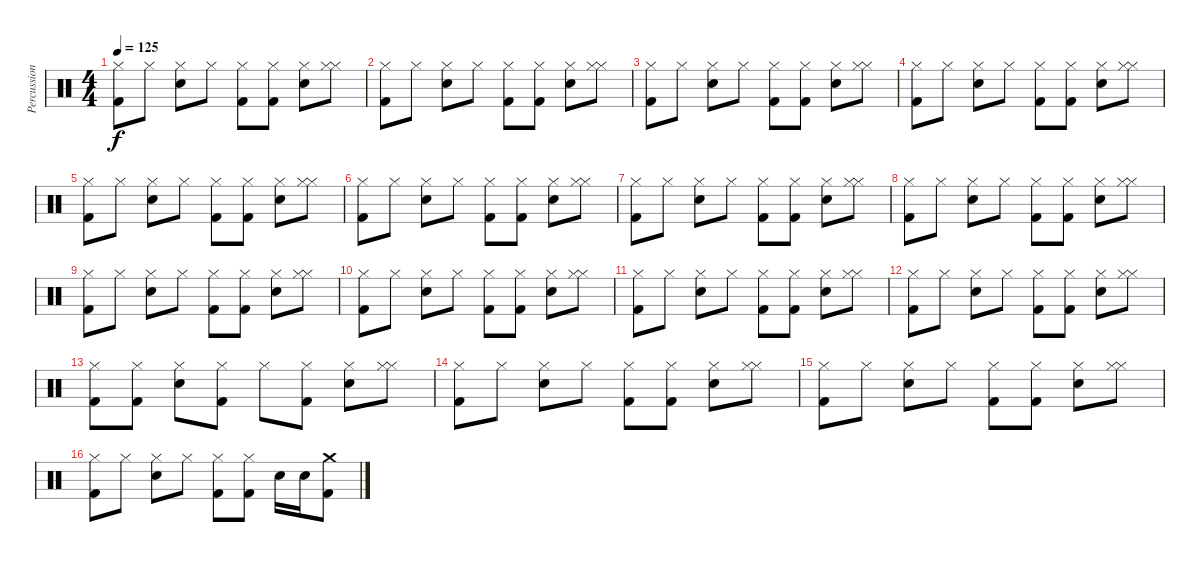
\track ("Percussion" "Percussion") {instrument percussion}
\staff {score}
\articulation defaults
\ts (4 4)
\tempo 125
\clef neutral
\ks c
("Hi-Hat (closed)" "Kick (hit) 2").8{dy f} "Hi-Hat (closed)".8 ("Hi-Hat (closed)" "Electric Snare (hit)").8 "Hi-Hat (closed)".8 ("Hi-Hat (closed)" "Kick (hit) 2").8 ("Hi-Hat (closed)" "Kick (hit) 2").8 ("Hi-Hat (closed)" "Electric Snare (hit)").8 ("Hi-Hat (closed)" "Hi-Hat (closed)").8 |
("Hi-Hat (closed)" "Kick (hit) 2").8 "Hi-Hat (closed)".8 ("Hi-Hat (closed)" "Electric Snare (hit)").8 "Hi-Hat (closed)".8 ("Hi-Hat (closed)" "Kick (hit) 2").8 ("Hi-Hat (closed)" "Kick (hit) 2").8 ("Hi-Hat (closed)" "Electric Snare (hit)").8 ("Hi-Hat (closed)" "Hi-Hat (closed)").8 |
("Hi-Hat (closed)" "Kick (hit) 2").8 "Hi-Hat (closed)".8 ("Hi-Hat (closed)" "Electric Snare (hit)").8 "Hi-Hat (closed)".8 ("Hi-Hat (closed)" "Kick (hit) 2").8 ("Hi-Hat (closed)" "Kick (hit) 2").8 ("Hi-Hat (closed)" "Electric Snare (hit)").8 ("Hi-Hat (closed)" "Hi-Hat (closed)").8 |
("Hi-Hat (closed)" "Kick (hit) 2").8 "Hi-Hat (closed)".8 ("Hi-Hat (closed)" "Electric Snare (hit)").8 "Hi-Hat (closed)".8 ("Hi-Hat (closed)" "Kick (hit) 2").8 ("Hi-Hat (closed)" "Kick (hit) 2").8 ("Hi-Hat (closed)" "Electric Snare (hit)").8 ("Hi-Hat (closed)" "Hi-Hat (closed)").8 |
("Hi-Hat (closed)" "Kick (hit) 2").8 "Hi-Hat (closed)".8 ("Hi-Hat (closed)" "Electric Snare (hit)").8 "Hi-Hat (closed)".8 ("Hi-Hat (closed)" "Kick (hit) 2").8 ("Hi-Hat (closed)" "Kick (hit) 2").8 ("Hi-Hat (closed)" "Electric Snare (hit)").8 ("Hi-Hat (closed)" "Hi-Hat (closed)").8 |
("Hi-Hat (closed)" "Kick (hit) 2").8 "Hi-Hat (closed)".8 ("Hi-Hat (closed)" "Electric Snare (hit)").8 "Hi-Hat (closed)".8 ("Hi-Hat (closed)" "Kick (hit) 2").8 ("Hi-Hat (closed)" "Kick (hit) 2").8 ("Hi-Hat (closed)" "Electric Snare (hit)").8 ("Hi-Hat (closed)" "Hi-Hat (closed)").8 |
("Hi-Hat (closed)" "Kick (hit) 2").8 "Hi-Hat (closed)".8 ("Hi-Hat (closed)" "Electric Snare (hit)").8 "Hi-Hat (closed)".8 ("Hi-Hat (closed)" "Kick (hit) 2").8 ("Hi-Hat (closed)" "Kick (hit) 2").8 ("Hi-Hat (closed)" "Electric Snare (hit)").8 ("Hi-Hat (closed)" "Hi-Hat (closed)").8 |
("Hi-Hat (closed)" "Kick (hit) 2").8 "Hi-Hat (closed)".8 ("Hi-Hat (closed)" "Electric Snare (hit)").8 "Hi-Hat (closed)".8 ("Hi-Hat (closed)" "Kick (hit) 2").8 ("Hi-Hat (closed)" "Kick (hit) 2").8 ("Hi-Hat (closed)" "Electric Snare (hit)").8 ("Hi-Hat (closed)" "Hi-Hat (closed)").8 |
("Hi-Hat (closed)" "Kick (hit) 2").8 "Hi-Hat (closed)".8 ("Hi-Hat (closed)" "Electric Snare (hit)").8 "Hi-Hat (closed)".8 ("Hi-Hat (closed)" "Kick (hit) 2").8 ("Hi-Hat (closed)" "Kick (hit) 2").8 ("Hi-Hat (closed)" "Electric Snare (hit)").8 ("Hi-Hat (closed)" "Hi-Hat (closed)").8 |
("Hi-Hat (closed)" "Kick (hit) 2").8 "Hi-Hat (closed)".8 ("Hi-Hat (closed)" "Electric Snare (hit)").8 "Hi-Hat (closed)".8 ("Hi-Hat (closed)" "Kick (hit) 2").8 ("Hi-Hat (closed)" "Kick (hit) 2").8 ("Hi-Hat (closed)" "Electric Snare (hit)").8 ("Hi-Hat (closed)" "Hi-Hat (closed)").8 |
("Hi-Hat (closed)" "Kick (hit) 2").8 "Hi-Hat (closed)".8 ("Hi-Hat (closed)" "Electric Snare (hit)").8 "Hi-Hat (closed)".8 ("Hi-Hat (closed)" "Kick (hit) 2").8 ("Hi-Hat (closed)" "Kick (hit) 2").8 ("Hi-Hat (closed)" "Electric Snare (hit)").8 ("Hi-Hat (closed)" "Hi-Hat (closed)").8 |
("Hi-Hat (closed)" "Kick (hit) 2").8 "Hi-Hat (closed)".8 ("Hi-Hat (closed)" "Electric Snare (hit)").8 "Hi-Hat (closed)".8 ("Hi-Hat (closed)" "Kick (hit) 2").8 ("Hi-Hat (closed)" "Kick (hit) 2").8 ("Hi-Hat (closed)" "Electric Snare (hit)").8 ("Hi-Hat (closed)" "Hi-Hat (closed)").8 |
("Hi-Hat (closed)" "Kick (hit) 2").8 ("Hi-Hat (closed)" "Kick (hit) 2").8 ("Hi-Hat (closed)" "Electric Snare (hit)").8 ("Hi-Hat (closed)" "Kick (hit) 2").8 "Hi-Hat (closed)".8 ("Hi-Hat (closed)" "Kick (hit) 2").8 ("Hi-Hat (closed)" "Electric Snare (hit)").8 ("Hi-Hat (closed)" "Hi-Hat (closed)").8 |
("Hi-Hat (closed)" "Kick (hit) 2").8 "Hi-Hat (closed)".8 ("Hi-Hat (closed)" "Electric Snare (hit)").8 "Hi-Hat (closed)".8 ("Hi-Hat (closed)" "Kick (hit) 2").8 ("Hi-Hat (closed)" "Kick (hit) 2").8 ("Hi-Hat (closed)" "Electric Snare (hit)").8 ("Hi-Hat (closed)" "Hi-Hat (closed)").8 |
("Hi-Hat (closed)" "Kick (hit) 2").8 "Hi-Hat (closed)".8 ("Hi-Hat (closed)" "Electric Snare (hit)").8 "Hi-Hat (closed)".8 ("Hi-Hat (closed)" "Kick (hit) 2").8 ("Hi-Hat (closed)" "Kick (hit) 2").8 ("Hi-Hat (closed)" "Electric Snare (hit)").8 ("Hi-Hat (closed)" "Hi-Hat (closed)").8 |
("Hi-Hat (closed)" "Kick (hit) 2").8 "Hi-Hat (closed)".8 ("Hi-Hat (closed)" "Electric Snare (hit)").8 "Hi-Hat (closed)".8 ("Hi-Hat (closed)" "Kick (hit) 2").8 ("Hi-Hat (closed)" "Kick (hit) 2").8 "Electric Snare (hit)".16 "Electric Snare (hit)".16 ("Crash medium (hit)" "Kick (hit) 2").8
